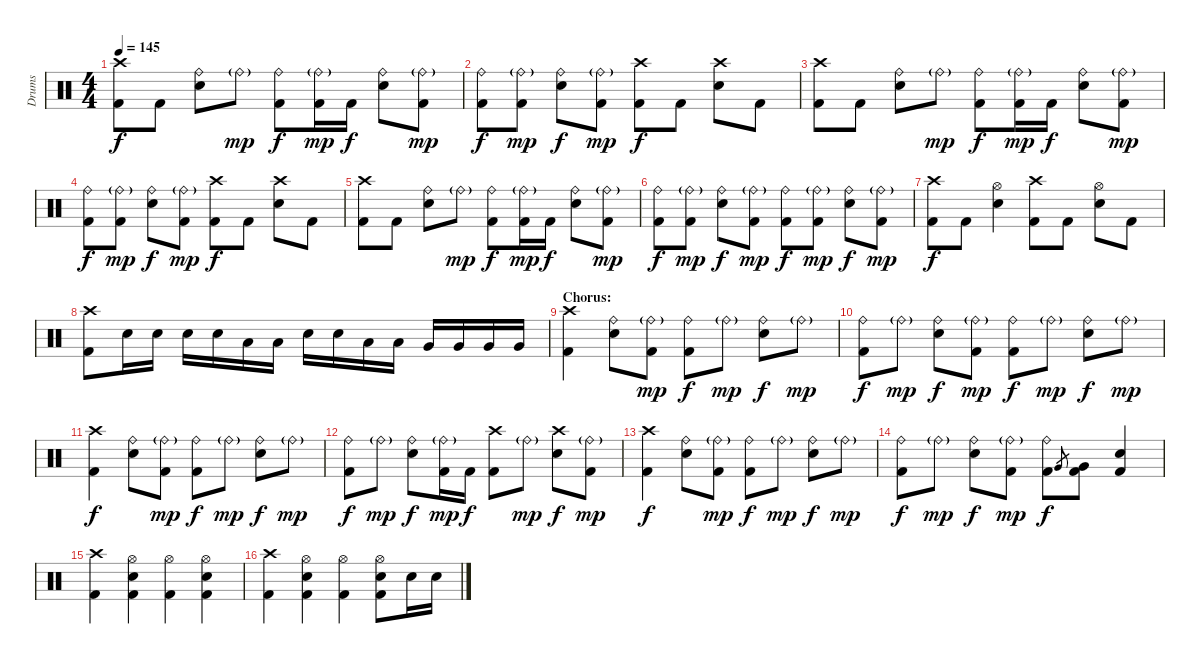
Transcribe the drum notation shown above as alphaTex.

\track ("Drums" "Drums") {instrument percussion}
\staff {score}
\articulation defaults
\ts (4 4)
\tempo 145
\clef neutral
\ks c
("Crash high (hit)" "Kick (hit) 2").8{dy f} "Kick (hit) 2".8 ("Ride (bell)" "Electric Snare (hit)").8 "Ride (bell)"{g}.8{dy mp} ("Ride (bell)" "Kick (hit) 2").8{dy f} ("Ride (bell)"{g} "Kick (hit) 2").16{dy mp} "Kick (hit) 2".16{dy f} ("Ride (bell)" "Electric Snare (hit)").8 ("Ride (bell)"{g} "Kick (hit) 2").8{dy mp} |
("Ride (bell)" "Kick (hit) 2").8{dy f} ("Ride (bell)"{g} "Kick (hit) 2").8{dy mp} ("Ride (bell)" "Electric Snare (hit)").8{dy f} ("Ride (bell)"{g} "Kick (hit) 2").8{dy mp} ("Crash high (hit)" "Kick (hit) 2").8{dy f} "Kick (hit) 2".8 ("Crash high (hit)" "Electric Snare (hit)").8 "Kick (hit) 2".8 |
("Crash high (hit)" "Kick (hit) 2").8 "Kick (hit) 2".8 ("Ride (bell)" "Electric Snare (hit)").8 "Ride (bell)"{g}.8{dy mp} ("Ride (bell)" "Kick (hit) 2").8{dy f} ("Ride (bell)"{g} "Kick (hit) 2").16{dy mp} "Kick (hit) 2".16{dy f} ("Ride (bell)" "Electric Snare (hit)").8 ("Ride (bell)"{g} "Kick (hit) 2").8{dy mp} |
("Ride (bell)" "Kick (hit) 2").8{dy f} ("Ride (bell)"{g} "Kick (hit) 2").8{dy mp} ("Ride (bell)" "Electric Snare (hit)").8{dy f} ("Ride (bell)"{g} "Kick (hit) 2").8{dy mp} ("Crash high (hit)" "Kick (hit) 2").8{dy f} "Kick (hit) 2".8 ("Crash high (hit)" "Electric Snare (hit)").8 "Kick (hit) 2".8 |
("Crash high (hit)" "Kick (hit) 2").8 "Kick (hit) 2".8 ("Ride (bell)" "Electric Snare (hit)").8 "Ride (bell)"{g}.8{dy mp} ("Ride (bell)" "Kick (hit) 2").8{dy f} ("Ride (bell)"{g} "Kick (hit) 2").16{dy mp} "Kick (hit) 2".16{dy f} ("Ride (bell)" "Electric Snare (hit)").8 ("Ride (bell)"{g} "Kick (hit) 2").8{dy mp} |
("Ride (bell)" "Kick (hit) 2").8{dy f} ("Ride (bell)"{g} "Kick (hit) 2").8{dy mp} ("Ride (bell)" "Electric Snare (hit)").8{dy f} ("Ride (bell)"{g} "Kick (hit) 2").8{dy mp} ("Ride (bell)" "Kick (hit) 2").8{dy f} ("Ride (bell)"{g} "Kick (hit) 2").8{dy mp} ("Ride (bell)" "Electric Snare (hit)").8{dy f} ("Ride (bell)"{g} "Kick (hit) 2").8{dy mp} |
("Crash high (hit)" "Kick (hit) 2").8{dy f} "Kick (hit) 2".8 ("Hi-Hat (open)" "Electric Snare (hit)").4 ("Crash high (hit)" "Kick (hit) 2").8 "Kick (hit) 2".8 ("Hi-Hat (open)" "Electric Snare (hit)").8 "Kick (hit) 2".8 |
("Crash high (hit)" "Kick (hit) 2").8 "Electric Snare (hit)".16 "Electric Snare (hit)".16 "Electric Snare (hit)".16 "Electric Snare (hit)".16 "Low Tom (hit)".16 "Low Tom (hit)".16 "Electric Snare (hit)".16 "Electric Snare (hit)".16 "Low Tom (hit)".16 "Low Tom (hit)".16 "Very Low Tom (hit)".16 "Very Low Tom (hit)".16 "Very Low Tom (hit)".16 "Very Low Tom (hit)".16 |
\section ("" "Chorus:")
("Crash high (hit)" "Kick (hit) 2").4 ("Ride (bell)" "Electric Snare (hit)").8 ("Ride (bell)"{g} "Kick (hit) 2").8{dy mp} ("Ride (bell)" "Kick (hit) 2").8{dy f} "Ride (bell)"{g}.8{dy mp} ("Ride (bell)" "Electric Snare (hit)").8{dy f} "Ride (bell)"{g}.8{dy mp} |
("Ride (bell)" "Kick (hit) 2").8{dy f} "Ride (bell)"{g}.8{dy mp} ("Ride (bell)" "Electric Snare (hit)").8{dy f} ("Ride (bell)"{g} "Kick (hit) 2").8{dy mp} ("Ride (bell)" "Kick (hit) 2").8{dy f} "Ride (bell)"{g}.8{dy mp} ("Ride (bell)" "Electric Snare (hit)").8{dy f} "Ride (bell)"{g}.8{dy mp} |
("Crash high (hit)" "Kick (hit) 2").4{dy f} ("Ride (bell)" "Electric Snare (hit)").8 ("Ride (bell)"{g} "Kick (hit) 2").8{dy mp} ("Ride (bell)" "Kick (hit) 2").8{dy f} "Ride (bell)"{g}.8{dy mp} ("Ride (bell)" "Electric Snare (hit)").8{dy f} "Ride (bell)"{g}.8{dy mp} |
("Ride (bell)" "Kick (hit) 2").8{dy f} "Ride (bell)"{g}.8{dy mp} ("Ride (bell)" "Electric Snare (hit)").8{dy f} ("Ride (bell)"{g} "Kick (hit) 2").16{dy mp} "Kick (hit) 2".16{dy f} ("Crash high (hit)" "Kick (hit) 2").8 "Ride (bell)"{g}.8{dy mp} ("Crash high (hit)" "Electric Snare (hit)").8{dy f} ("Ride (bell)"{g} "Kick (hit) 2").8{dy mp} |
("Crash high (hit)" "Kick (hit) 2").4{dy f} ("Ride (bell)" "Electric Snare (hit)").8 ("Ride (bell)"{g} "Kick (hit) 2").8{dy mp} ("Ride (bell)" "Kick (hit) 2").8{dy f} "Ride (bell)"{g}.8{dy mp} ("Ride (bell)" "Electric Snare (hit)").8{dy f} "Ride (bell)"{g}.8{dy mp} |
("Ride (bell)" "Kick (hit) 2").8{dy f} "Ride (bell)"{g}.8{dy mp} ("Ride (bell)" "Electric Snare (hit)").8{dy f} ("Ride (bell)"{g} "Kick (hit) 2").8{dy mp} ("Ride (bell)" "Kick (hit) 2").8{dy f} "Very Low Tom (hit)".8{gr} ("Very Low Tom (hit)" "Kick (hit) 2").8 ("Electric Snare (hit)" "Kick (hit) 2").4 |
("Crash high (hit)" "Kick (hit) 2").4 ("Hi-Hat (open)" "Electric Snare (hit)" "Kick (hit) 2").4 ("Hi-Hat (open)" "Kick (hit) 2").4 ("Hi-Hat (open)" "Electric Snare (hit)" "Kick (hit) 2").4 |
("Crash high (hit)" "Kick (hit) 2").4 ("Hi-Hat (open)" "Electric Snare (hit)" "Kick (hit) 2").4 ("Hi-Hat (open)" "Kick (hit) 2").4 ("Hi-Hat (open)" "Electric Snare (hit)" "Kick (hit) 2").8 "Electric Snare (hit)".16 "Electric Snare (hit)".16
